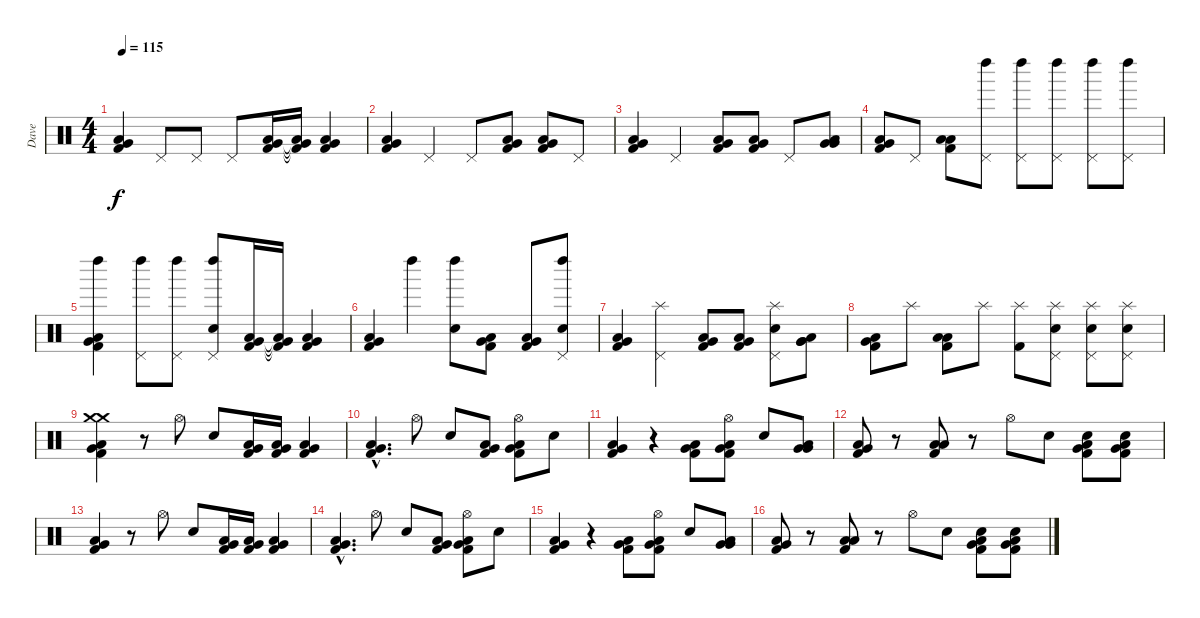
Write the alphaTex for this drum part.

\track ("Dave" "Dave") {instrument percussion}
\staff {score}
\articulation defaults
\ts (4 4)
\tempo 115
\clef neutral
\ks c
("Low Floor Tom (hit)" "Very Low Tom (hit)" "Kick (hit) 2").4{dy f} "Pedal Hi-Hat (hit)".8 "Pedal Hi-Hat (hit)".8 "Pedal Hi-Hat (hit)".8 ("Very Low Tom (hit)" "Kick (hit) 2" "Low Floor Tom (hit)").16 ("Very Low Tom (hit)"{t} "Kick (hit) 2"{t} "Low Floor Tom (hit)"{t}).16 ("Very Low Tom (hit)" "Kick (hit) 2" "Low Floor Tom (hit)").4 |
("Very Low Tom (hit)" "Kick (hit) 2" "Low Floor Tom (hit)").4 "Pedal Hi-Hat (hit)".4 "Pedal Hi-Hat (hit)".8 ("Low Floor Tom (hit)" "Very Low Tom (hit)" "Kick (hit) 2").8 ("Low Floor Tom (hit)" "Very Low Tom (hit)" "Kick (hit) 2").8 "Pedal Hi-Hat (hit)".8 |
("Very Low Tom (hit)" "Kick (hit) 2" "Low Floor Tom (hit)").4 "Pedal Hi-Hat (hit)".4 ("Very Low Tom (hit)" "Low Floor Tom (hit)" "Kick (hit) 2").8 ("Very Low Tom (hit)" "Kick (hit) 2" "Low Floor Tom (hit)").8 "Pedal Hi-Hat (hit)".8 ("Very Low Tom (hit)" "Very Low Tom (hit)" "Low Floor Tom (hit)").8 |
("Low Floor Tom (hit)" "Very Low Tom (hit)" "Kick (hit) 2").8 "Pedal Hi-Hat (hit)".8 ("Low Floor Tom (hit)" "Low Floor Tom (hit)" "Kick (hit) 2").8 ("Left Maraca (hit)" "Pedal Hi-Hat (hit)").8 ("Left Maraca (hit)" "Pedal Hi-Hat (hit)").8 ("Left Maraca (hit)" "Pedal Hi-Hat (hit)").8 ("Left Maraca (hit)" "Pedal Hi-Hat (hit)").8 ("Left Maraca (hit)" "Pedal Hi-Hat (hit)").8 |
("Left Maraca (hit)" "Low Floor Tom (hit)" "Very Low Tom (hit)" "Kick (hit) 2").4 ("Left Maraca (hit)" "Pedal Hi-Hat (hit)").8 ("Left Maraca (hit)" "Pedal Hi-Hat (hit)").8 ("Left Maraca (hit)" "Pedal Hi-Hat (hit)" "Hand Clap (hit)").8 ("Very Low Tom (hit)" "Kick (hit) 2" "Low Floor Tom (hit)").16 ("Very Low Tom (hit)"{t} "Kick (hit) 2"{t} "Low Floor Tom (hit)"{t}).16 ("Very Low Tom (hit)" "Kick (hit) 2" "Low Floor Tom (hit)").4 |
("Very Low Tom (hit)" "Kick (hit) 2" "Low Floor Tom (hit)").4 "Left Maraca (hit)".4 ("Left Maraca (hit)" "Hand Clap (hit)").8 ("Low Floor Tom (hit)" "Very Low Tom (hit)" "Kick (hit) 2").8 ("Low Floor Tom (hit)" "Very Low Tom (hit)" "Kick (hit) 2").8 ("Pedal Hi-Hat (hit)" "Left Maraca (hit)" "Hand Clap (hit)").8 |
("Very Low Tom (hit)" "Kick (hit) 2" "Low Floor Tom (hit)").4 ("Pedal Hi-Hat (hit)" "Splash (hit)").4 ("Very Low Tom (hit)" "Low Floor Tom (hit)" "Kick (hit) 2").8 ("Very Low Tom (hit)" "Kick (hit) 2" "Low Floor Tom (hit)").8 ("Pedal Hi-Hat (hit)" "Splash (hit)" "Hand Clap (hit)").8 ("Very Low Tom (hit)" "Very Low Tom (hit)" "Low Floor Tom (hit)").8 |
("Low Floor Tom (hit)" "Very Low Tom (hit)" "Kick (hit) 2").8 "Splash (hit)".8 ("Low Floor Tom (hit)" "Low Floor Tom (hit)" "Kick (hit) 2").8 "Splash (hit)".8 ("Splash (hit)" "Kick (hit) 2").8 ("Pedal Hi-Hat (hit)" "Splash (hit)" "Hand Clap (hit)").8 ("Pedal Hi-Hat (hit)" "Splash (hit)" "Hand Clap (hit)").8 ("Pedal Hi-Hat (hit)" "Splash (hit)" "Hand Clap (hit)").8 |
("Crash medium (hit)" "Crash medium (hit)" "Low Floor Tom (hit)" "Very Low Tom (hit)" "Kick (hit) 2").4 r.8 "Hi-Hat (open)".8 "Electric Snare (hit)".8 ("Very Low Tom (hit)" "Kick (hit) 2" "Low Floor Tom (hit)").16 ("Very Low Tom (hit)" "Kick (hit) 2" "Low Floor Tom (hit)").16 ("Very Low Tom (hit)" "Kick (hit) 2" "Low Floor Tom (hit)").4 |
("Very Low Tom (hit)"{hac} "Kick (hit) 2"{hac} "Low Floor Tom (hit)"{hac}).4{d} "Hi-Hat (open)".8 "Electric Snare (hit)".8 ("Low Floor Tom (hit)" "Very Low Tom (hit)" "Kick (hit) 2").8 ("Hi-Hat (open)" "Low Floor Tom (hit)" "Very Low Tom (hit)" "Kick (hit) 2").8 "Electric Snare (hit)".8 |
("Very Low Tom (hit)" "Kick (hit) 2" "Low Floor Tom (hit)").4 r.4 ("Very Low Tom (hit)" "Low Floor Tom (hit)" "Kick (hit) 2").8 ("Hi-Hat (open)" "Very Low Tom (hit)" "Kick (hit) 2" "Low Floor Tom (hit)").8 "Electric Snare (hit)".8 ("Very Low Tom (hit)" "Very Low Tom (hit)" "Low Floor Tom (hit)").8 |
("Low Floor Tom (hit)" "Very Low Tom (hit)" "Kick (hit) 2").8 r.8 ("Low Floor Tom (hit)" "Low Floor Tom (hit)" "Kick (hit) 2").8 r.8 "Hi-Hat (open)".8 "Electric Snare (hit)".8 ("Electric Snare (hit)" "Very Low Tom (hit)" "Low Floor Tom (hit)" "Kick (hit) 2").8 ("Electric Snare (hit)" "Very Low Tom (hit)" "Low Floor Tom (hit)" "Kick (hit) 2").8 |
("Low Floor Tom (hit)" "Very Low Tom (hit)" "Kick (hit) 2").4 r.8 "Hi-Hat (open)".8 "Electric Snare (hit)".8 ("Very Low Tom (hit)" "Kick (hit) 2" "Low Floor Tom (hit)").16 ("Very Low Tom (hit)" "Kick (hit) 2" "Low Floor Tom (hit)").16 ("Very Low Tom (hit)" "Kick (hit) 2" "Low Floor Tom (hit)").4 |
("Very Low Tom (hit)"{hac} "Kick (hit) 2"{hac} "Low Floor Tom (hit)"{hac}).4{d} "Hi-Hat (open)".8 "Electric Snare (hit)".8 ("Low Floor Tom (hit)" "Very Low Tom (hit)" "Kick (hit) 2").8 ("Hi-Hat (open)" "Low Floor Tom (hit)" "Very Low Tom (hit)" "Kick (hit) 2").8 "Electric Snare (hit)".8 |
("Very Low Tom (hit)" "Kick (hit) 2" "Low Floor Tom (hit)").4 r.4 ("Very Low Tom (hit)" "Low Floor Tom (hit)" "Kick (hit) 2").8 ("Hi-Hat (open)" "Very Low Tom (hit)" "Kick (hit) 2" "Low Floor Tom (hit)").8 "Electric Snare (hit)".8 ("Very Low Tom (hit)" "Very Low Tom (hit)" "Low Floor Tom (hit)").8 |
("Low Floor Tom (hit)" "Very Low Tom (hit)" "Kick (hit) 2").8 r.8 ("Low Floor Tom (hit)" "Low Floor Tom (hit)" "Kick (hit) 2").8 r.8 "Hi-Hat (open)".8 "Electric Snare (hit)".8 ("Electric Snare (hit)" "Very Low Tom (hit)" "Low Floor Tom (hit)" "Kick (hit) 2").8 ("Electric Snare (hit)" "Very Low Tom (hit)" "Low Floor Tom (hit)" "Kick (hit) 2").8
